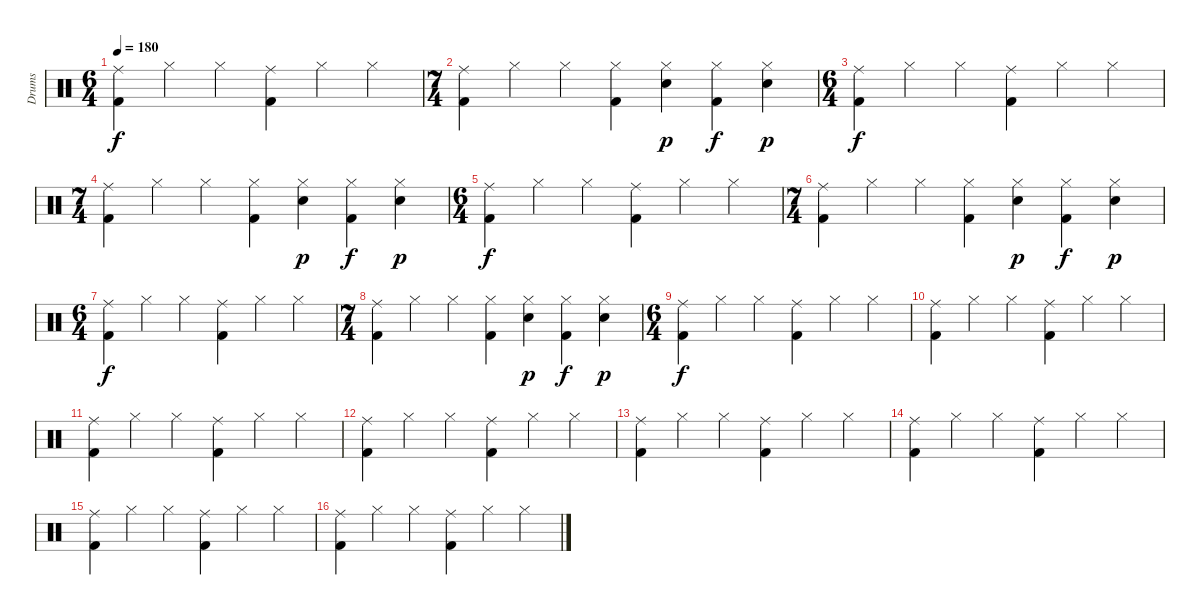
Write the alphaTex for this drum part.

\track ("Drums" "Drums") {instrument percussion}
\staff {score}
\articulation defaults
\ts (6 4)
\tempo 180
\clef neutral
\ks c
("Ride (middle)" "Kick (hit) 2").4{dy f} "Hi-Hat (closed)".4 "Hi-Hat (closed)".4 ("Ride (middle)" "Kick (hit) 2").4 "Hi-Hat (closed)".4 "Hi-Hat (closed)".4 |
\ts (7 4)
("Ride (middle)" "Kick (hit) 2").4 "Hi-Hat (closed)".4 "Hi-Hat (closed)".4 ("Hi-Hat (closed)" "Kick (hit) 2").4 ("Hi-Hat (closed)" "Electric Snare (hit)").4{dy p} ("Hi-Hat (closed)" "Kick (hit) 2").4{dy f} ("Hi-Hat (closed)" "Electric Snare (hit)").4{dy p} |
\ts (6 4)
("Ride (middle)" "Kick (hit) 2").4{dy f} "Hi-Hat (closed)".4 "Hi-Hat (closed)".4 ("Ride (middle)" "Kick (hit) 2").4 "Hi-Hat (closed)".4 "Hi-Hat (closed)".4 |
\ts (7 4)
("Ride (middle)" "Kick (hit) 2").4 "Hi-Hat (closed)".4 "Hi-Hat (closed)".4 ("Hi-Hat (closed)" "Kick (hit) 2").4 ("Hi-Hat (closed)" "Electric Snare (hit)").4{dy p} ("Hi-Hat (closed)" "Kick (hit) 2").4{dy f} ("Hi-Hat (closed)" "Electric Snare (hit)").4{dy p} |
\ts (6 4)
("Ride (middle)" "Kick (hit) 2").4{dy f} "Hi-Hat (closed)".4 "Hi-Hat (closed)".4 ("Ride (middle)" "Kick (hit) 2").4 "Hi-Hat (closed)".4 "Hi-Hat (closed)".4 |
\ts (7 4)
("Ride (middle)" "Kick (hit) 2").4 "Hi-Hat (closed)".4 "Hi-Hat (closed)".4 ("Hi-Hat (closed)" "Kick (hit) 2").4 ("Hi-Hat (closed)" "Electric Snare (hit)").4{dy p} ("Hi-Hat (closed)" "Kick (hit) 2").4{dy f} ("Hi-Hat (closed)" "Electric Snare (hit)").4{dy p} |
\ts (6 4)
("Ride (middle)" "Kick (hit) 2").4{dy f} "Hi-Hat (closed)".4 "Hi-Hat (closed)".4 ("Ride (middle)" "Kick (hit) 2").4 "Hi-Hat (closed)".4 "Hi-Hat (closed)".4 |
\ts (7 4)
("Ride (middle)" "Kick (hit) 2").4 "Hi-Hat (closed)".4 "Hi-Hat (closed)".4 ("Hi-Hat (closed)" "Kick (hit) 2").4 ("Hi-Hat (closed)" "Electric Snare (hit)").4{dy p} ("Hi-Hat (closed)" "Kick (hit) 2").4{dy f} ("Hi-Hat (closed)" "Electric Snare (hit)").4{dy p} |
\ts (6 4)
("Ride (middle)" "Kick (hit) 2").4{dy f} "Hi-Hat (closed)".4 "Hi-Hat (closed)".4 ("Ride (middle)" "Kick (hit) 2").4 "Hi-Hat (closed)".4 "Hi-Hat (closed)".4 |
("Ride (middle)" "Kick (hit) 2").4 "Hi-Hat (closed)".4 "Hi-Hat (closed)".4 ("Ride (middle)" "Kick (hit) 2").4 "Hi-Hat (closed)".4 "Hi-Hat (closed)".4 |
("Ride (middle)" "Kick (hit) 2").4 "Hi-Hat (closed)".4 "Hi-Hat (closed)".4 ("Ride (middle)" "Kick (hit) 2").4 "Hi-Hat (closed)".4 "Hi-Hat (closed)".4 |
("Ride (middle)" "Kick (hit) 2").4 "Hi-Hat (closed)".4 "Hi-Hat (closed)".4 ("Ride (middle)" "Kick (hit) 2").4 "Hi-Hat (closed)".4 "Hi-Hat (closed)".4 |
("Ride (middle)" "Kick (hit) 2").4 "Hi-Hat (closed)".4 "Hi-Hat (closed)".4 ("Ride (middle)" "Kick (hit) 2").4 "Hi-Hat (closed)".4 "Hi-Hat (closed)".4 |
("Ride (middle)" "Kick (hit) 2").4 "Hi-Hat (closed)".4 "Hi-Hat (closed)".4 ("Ride (middle)" "Kick (hit) 2").4 "Hi-Hat (closed)".4 "Hi-Hat (closed)".4 |
("Ride (middle)" "Kick (hit) 2").4 "Hi-Hat (closed)".4 "Hi-Hat (closed)".4 ("Ride (middle)" "Kick (hit) 2").4 "Hi-Hat (closed)".4 "Hi-Hat (closed)".4 |
("Ride (middle)" "Kick (hit) 2").4 "Hi-Hat (closed)".4 "Hi-Hat (closed)".4 ("Ride (middle)" "Kick (hit) 2").4 "Hi-Hat (closed)".4 "Hi-Hat (closed)".4
